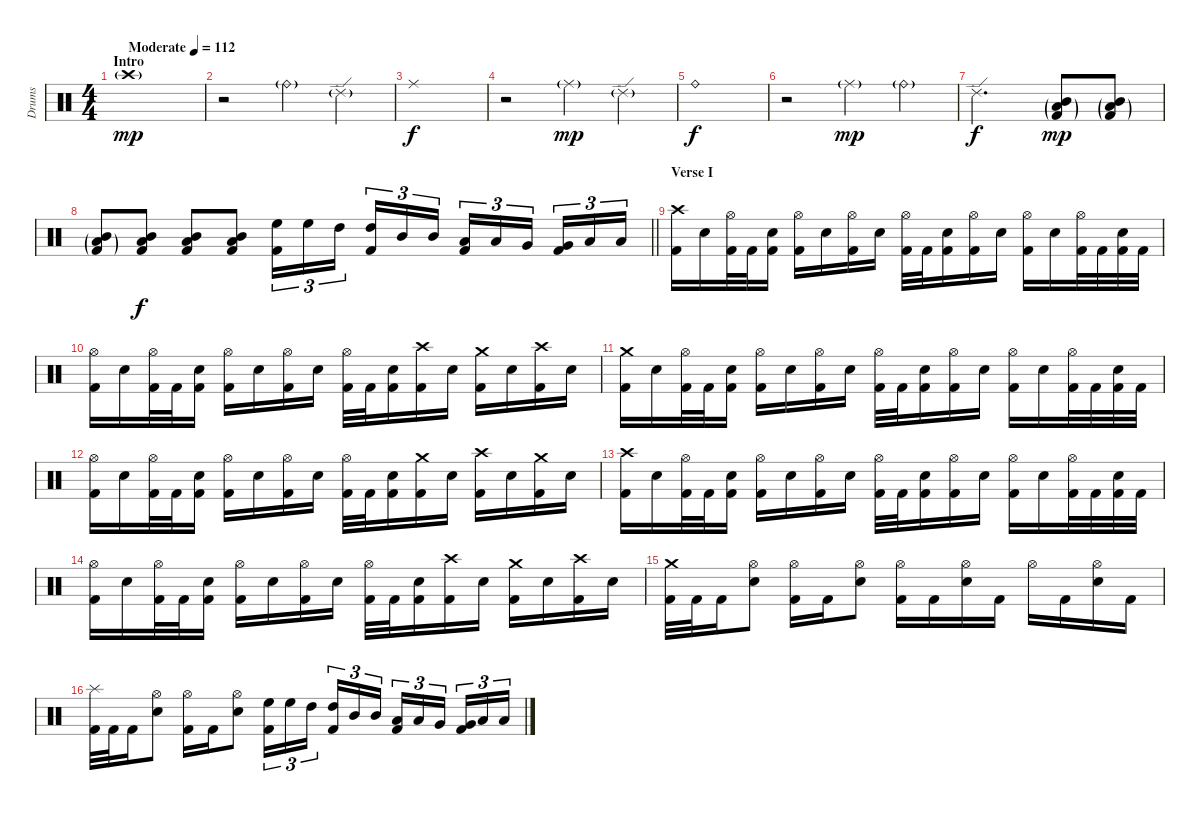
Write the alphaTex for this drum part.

\track ("Drums" "Drums") {instrument percussion}
\staff {score}
\articulation defaults
\ts (4 4)
\section ("" "Intro")
\tempo (112 "Moderate")
\clef neutral
\ks c "Crash high (hit)"{g}.1{dy mp}
|
r.2 "Ride (bell)"{g}.4 "Ride (edge) 2"{g}.4 |
"Ride (middle)".1{dy f} |
r.2 "Ride (middle)"{g}.4{dy mp} "Ride (edge) 2"{g}.4 |
"Ride (bell)".1{dy f} |
r.2 "Ride (middle)"{g}.4{dy mp} "Ride (bell)"{g}.4 |
"Ride (edge) 2".2{d dy f} ("Mid Tom (hit)"{g} "Low Tom (hit)"{g} "Kick (hit) 2"{g}).8{dy mp} ("Mid Tom (hit)"{g} "Low Tom (hit)"{g} "Kick (hit) 2"{g}).8 |
\barLineRight lightlight
("Mid Tom (hit)"{g} "Low Tom (hit)"{g} "Kick (hit) 2"{g}).8 ("Mid Tom (hit)" "Low Tom (hit)" "Kick (hit) 2").8{dy f} ("Mid Tom (hit)" "Low Tom (hit)" "Kick (hit) 2").8 ("Mid Tom (hit)" "Low Tom (hit)" "Kick (hit) 2").8 ("High Floor Tom (hit)" "Kick (hit) 2").16{tu (3 2)} "High Floor Tom (hit)".16{tu (3 2)} "High Tom (hit)".16{tu (3 2) beam splitsecondary} ("High Tom (hit)" "Kick (hit) 2").16{tu (3 2)} "Mid Tom (hit)".16{tu (3 2)} "Mid Tom (hit)".16{tu (3 2)} ("Low Tom (hit)" "Kick (hit) 2").16{tu (3 2)} "Low Tom (hit)".16{tu (3 2)} "Very Low Tom (hit)".16{tu (3 2) beam splitsecondary} ("Very Low Tom (hit)" "Kick (hit) 2").16{tu (3 2)} "Low Floor Tom (hit)".16{tu (3 2)} "Low Floor Tom (hit)".16{tu (3 2)} |
\section ("" "Verse I")
("Crash high (hit)" "Kick (hit) 2").16 "Electric Snare (hit)".16 ("Hi-Hat (open)" "Kick (hit) 2").32 "Kick (hit) 2".32 ("Electric Snare (hit)" "Kick (hit) 2").16 ("Hi-Hat (open)" "Kick (hit) 2").16 "Electric Snare (hit)".16 ("Hi-Hat (open)" "Kick (hit) 2").16 "Electric Snare (hit)".16 ("Hi-Hat (open)" "Kick (hit) 2").32 "Kick (hit) 2".32 ("Electric Snare (hit)" "Kick (hit) 2").16 ("Hi-Hat (open)" "Kick (hit) 2").16 "Electric Snare (hit)".16 ("Hi-Hat (open)" "Kick (hit) 2").16 "Electric Snare (hit)".16 ("Hi-Hat (open)" "Kick (hit) 2").32 "Kick (hit) 2".32 ("Electric Snare (hit)" "Kick (hit) 2").32 "Kick (hit) 2".32 |
("Hi-Hat (open)" "Kick (hit) 2").16 "Electric Snare (hit)".16 ("Hi-Hat (open)" "Kick (hit) 2").32 "Kick (hit) 2".32 ("Electric Snare (hit)" "Kick (hit) 2").16 ("Hi-Hat (open)" "Kick (hit) 2").16 "Electric Snare (hit)".16 ("Hi-Hat (open)" "Kick (hit) 2").16 "Electric Snare (hit)".16 ("Hi-Hat (open)" "Kick (hit) 2").32 "Kick (hit) 2".32 ("Electric Snare (hit)" "Kick (hit) 2").16 ("Crash high (hit)" "Kick (hit) 2").16 "Electric Snare (hit)".16 ("Crash medium (hit)" "Kick (hit) 2").16 "Electric Snare (hit)".16 ("Crash high (hit)" "Kick (hit) 2").16 "Electric Snare (hit)".16 |
("Crash medium (hit)" "Kick (hit) 2").16 "Electric Snare (hit)".16 ("Hi-Hat (open)" "Kick (hit) 2").32 "Kick (hit) 2".32 ("Electric Snare (hit)" "Kick (hit) 2").16 ("Hi-Hat (open)" "Kick (hit) 2").16 "Electric Snare (hit)".16 ("Hi-Hat (open)" "Kick (hit) 2").16 "Electric Snare (hit)".16 ("Hi-Hat (open)" "Kick (hit) 2").32 "Kick (hit) 2".32 ("Electric Snare (hit)" "Kick (hit) 2").16 ("Hi-Hat (open)" "Kick (hit) 2").16 "Electric Snare (hit)".16 ("Hi-Hat (open)" "Kick (hit) 2").16 "Electric Snare (hit)".16 ("Hi-Hat (open)" "Kick (hit) 2").32 "Kick (hit) 2".32 ("Electric Snare (hit)" "Kick (hit) 2").32 "Kick (hit) 2".32 |
("Hi-Hat (open)" "Kick (hit) 2").16 "Electric Snare (hit)".16 ("Hi-Hat (open)" "Kick (hit) 2").32 "Kick (hit) 2".32 ("Electric Snare (hit)" "Kick (hit) 2").16 ("Hi-Hat (open)" "Kick (hit) 2").16 "Electric Snare (hit)".16 ("Hi-Hat (open)" "Kick (hit) 2").16 "Electric Snare (hit)".16 ("Hi-Hat (open)" "Kick (hit) 2").32 "Kick (hit) 2".32 ("Electric Snare (hit)" "Kick (hit) 2").16 ("Crash medium (hit)" "Kick (hit) 2").16 "Electric Snare (hit)".16 ("Crash high (hit)" "Kick (hit) 2").16 "Electric Snare (hit)".16 ("Crash medium (hit)" "Kick (hit) 2").16 "Electric Snare (hit)".16 |
("Crash high (hit)" "Kick (hit) 2").16 "Electric Snare (hit)".16 ("Hi-Hat (open)" "Kick (hit) 2").32 "Kick (hit) 2".32 ("Electric Snare (hit)" "Kick (hit) 2").16 ("Hi-Hat (open)" "Kick (hit) 2").16 "Electric Snare (hit)".16 ("Hi-Hat (open)" "Kick (hit) 2").16 "Electric Snare (hit)".16 ("Hi-Hat (open)" "Kick (hit) 2").32 "Kick (hit) 2".32 ("Electric Snare (hit)" "Kick (hit) 2").16 ("Hi-Hat (open)" "Kick (hit) 2").16 "Electric Snare (hit)".16 ("Hi-Hat (open)" "Kick (hit) 2").16 "Electric Snare (hit)".16 ("Hi-Hat (open)" "Kick (hit) 2").32 "Kick (hit) 2".32 ("Electric Snare (hit)" "Kick (hit) 2").32 "Kick (hit) 2".32 |
("Hi-Hat (open)" "Kick (hit) 2").16 "Electric Snare (hit)".16 ("Hi-Hat (open)" "Kick (hit) 2").32 "Kick (hit) 2".32 ("Electric Snare (hit)" "Kick (hit) 2").16 ("Hi-Hat (open)" "Kick (hit) 2").16 "Electric Snare (hit)".16 ("Hi-Hat (open)" "Kick (hit) 2").16 "Electric Snare (hit)".16 ("Hi-Hat (open)" "Kick (hit) 2").32 "Kick (hit) 2".32 ("Electric Snare (hit)" "Kick (hit) 2").16 ("Crash high (hit)" "Kick (hit) 2").16 "Electric Snare (hit)".16 ("Crash medium (hit)" "Kick (hit) 2").16 "Electric Snare (hit)".16 ("Crash high (hit)" "Kick (hit) 2").16 "Electric Snare (hit)".16 |
("Crash medium (hit)" "Kick (hit) 2").32 "Kick (hit) 2".32 "Kick (hit) 2".16 ("Hi-Hat (open)" "Electric Snare (hit)").8 ("Hi-Hat (open)" "Kick (hit) 2").16 "Kick (hit) 2".16 ("Hi-Hat (open)" "Electric Snare (hit)").8 ("Hi-Hat (open)" "Kick (hit) 2").16 "Kick (hit) 2".16 ("Hi-Hat (open)" "Electric Snare (hit)").16 "Kick (hit) 2".16 "Hi-Hat (open)".16 "Kick (hit) 2".16 ("Hi-Hat (open)" "Electric Snare (hit)").16 "Kick (hit) 2".16 |
("Splash (hit)" "Kick (hit) 2").32 "Kick (hit) 2".32 "Kick (hit) 2".16 ("Hi-Hat (open)" "Electric Snare (hit)").8 ("Hi-Hat (open)" "Kick (hit) 2").16 "Kick (hit) 2".16 ("Hi-Hat (open)" "Electric Snare (hit)").8 ("High Floor Tom (hit)" "Kick (hit) 2").16{tu (3 2)} "High Floor Tom (hit)".16{tu (3 2)} "High Tom (hit)".16{tu (3 2) beam splitsecondary} ("High Tom (hit)" "Kick (hit) 2").16{tu (3 2)} "Mid Tom (hit)".16{tu (3 2)} "Mid Tom (hit)".16{tu (3 2)} ("Low Tom (hit)" "Kick (hit) 2").16{tu (3 2)} "Low Tom (hit)".16{tu (3 2)} "Very Low Tom (hit)".16{tu (3 2) beam splitsecondary} ("Very Low Tom (hit)" "Kick (hit) 2").16{tu (3 2)} "Low Floor Tom (hit)".16{tu (3 2)} "Low Floor Tom (hit)".16{tu (3 2)}
